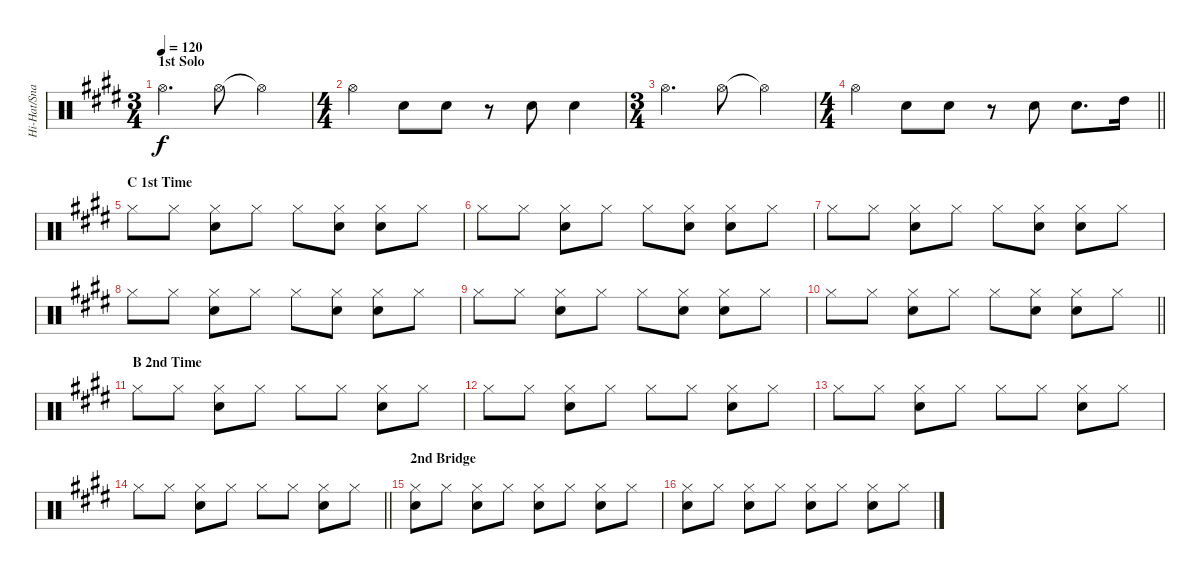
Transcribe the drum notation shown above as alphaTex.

\track ("Hi-Hat/Snare" "Hi-Hat/Sna") {instrument percussion}
\staff {score}
\articulation defaults
\ts (3 4)
\section ("" "1st Solo")
\tempo 120
\clef neutral
\ks e "Hi-Hat (open)".4{d dy f} "Hi-Hat (open)".8 "Hi-Hat (open)"{t}.4
|
\ts (4 4)
"Hi-Hat (open)".4 "Snare (hit) 2".8 "Snare (hit) 2".8 r.8 "Snare (hit) 2".8 "Snare (hit) 2".4 |
\ts (3 4)
"Hi-Hat (open)".4{d} "Hi-Hat (open)".8 "Hi-Hat (open)"{t}.4 |
\ts (4 4)
\barLineRight lightlight "Hi-Hat (open)".4 "Snare (hit) 2".8 "Snare (hit) 2".8
r.8 "Snare (hit) 2".8 "Snare (hit) 2".8{d} "High Tom (hit)".16 |
\section ("" "C 1st Time")
"Hi-Hat (closed)".8 "Hi-Hat (closed)".8 ("Hi-Hat (closed)" "Snare (hit) 2").8 "Hi-Hat (closed)".8 "Hi-Hat (closed)".8 ("Hi-Hat (closed)" "Snare (hit) 2").8 ("Hi-Hat (closed)" "Snare (hit) 2").8 "Hi-Hat (closed)".8 |
"Hi-Hat (closed)".8 "Hi-Hat (closed)".8 ("Hi-Hat (closed)" "Snare (hit) 2").8 "Hi-Hat (closed)".8 "Hi-Hat (closed)".8 ("Hi-Hat (closed)" "Snare (hit) 2").8 ("Hi-Hat (closed)" "Snare (hit) 2").8 "Hi-Hat (closed)".8 |
"Hi-Hat (closed)".8 "Hi-Hat (closed)".8 ("Hi-Hat (closed)" "Snare (hit) 2").8 "Hi-Hat (closed)".8 "Hi-Hat (closed)".8 ("Hi-Hat (closed)" "Snare (hit) 2").8 ("Hi-Hat (closed)" "Snare (hit) 2").8 "Hi-Hat (closed)".8 |
"Hi-Hat (closed)".8 "Hi-Hat (closed)".8 ("Hi-Hat (closed)" "Snare (hit) 2").8 "Hi-Hat (closed)".8 "Hi-Hat (closed)".8 ("Hi-Hat (closed)" "Snare (hit) 2").8 ("Hi-Hat (closed)" "Snare (hit) 2").8 "Hi-Hat (closed)".8 |
"Hi-Hat (closed)".8 "Hi-Hat (closed)".8 ("Hi-Hat (closed)" "Snare (hit) 2").8 "Hi-Hat (closed)".8 "Hi-Hat (closed)".8 ("Hi-Hat (closed)" "Snare (hit) 2").8 ("Hi-Hat (closed)" "Snare (hit) 2").8 "Hi-Hat (closed)".8 |
\barLineRight lightlight "Hi-Hat (closed)".8 "Hi-Hat (closed)".8
("Hi-Hat (closed)" "Snare (hit) 2").8 "Hi-Hat (closed)".8 "Hi-Hat (closed)".8 ("Hi-Hat (closed)" "Snare (hit) 2").8 ("Hi-Hat (closed)" "Snare (hit) 2").8 "Hi-Hat (closed)".8 |
\section ("" "B 2nd Time")
"Hi-Hat (closed)".8 "Hi-Hat (closed)".8 ("Hi-Hat (closed)" "Snare (hit) 2").8 "Hi-Hat (closed)".8 "Hi-Hat (closed)".8 "Hi-Hat (closed)".8 ("Hi-Hat (closed)" "Snare (hit) 2").8 "Hi-Hat (closed)".8 |
"Hi-Hat (closed)".8 "Hi-Hat (closed)".8 ("Hi-Hat (closed)" "Snare (hit) 2").8 "Hi-Hat (closed)".8 "Hi-Hat (closed)".8 "Hi-Hat (closed)".8 ("Hi-Hat (closed)" "Snare (hit) 2").8 "Hi-Hat (closed)".8 |
"Hi-Hat (closed)".8 "Hi-Hat (closed)".8 ("Hi-Hat (closed)" "Snare (hit) 2").8 "Hi-Hat (closed)".8 "Hi-Hat (closed)".8 "Hi-Hat (closed)".8 ("Hi-Hat (closed)" "Snare (hit) 2").8 "Hi-Hat (closed)".8 |
\barLineRight lightlight "Hi-Hat (closed)".8 "Hi-Hat (closed)".8
("Hi-Hat (closed)" "Snare (hit) 2").8 "Hi-Hat (closed)".8 "Hi-Hat (closed)".8 "Hi-Hat (closed)".8 ("Hi-Hat (closed)" "Snare (hit) 2").8 "Hi-Hat (closed)".8 |
\section ("" "2nd Bridge")
("Hi-Hat (closed)" "Snare (hit) 2").8 "Hi-Hat (closed)".8 ("Hi-Hat (closed)" "Snare (hit) 2").8 "Hi-Hat (closed)".8 ("Hi-Hat (closed)" "Snare (hit) 2").8 "Hi-Hat (closed)".8 ("Hi-Hat (closed)" "Snare (hit) 2").8 "Hi-Hat (closed)".8 |
("Hi-Hat (closed)" "Snare (hit) 2").8 "Hi-Hat (closed)".8 ("Hi-Hat (closed)" "Snare (hit) 2").8 "Hi-Hat (closed)".8 ("Hi-Hat (closed)" "Snare (hit) 2").8 "Hi-Hat (closed)".8 ("Hi-Hat (closed)" "Snare (hit) 2").8 "Hi-Hat (closed)".8
